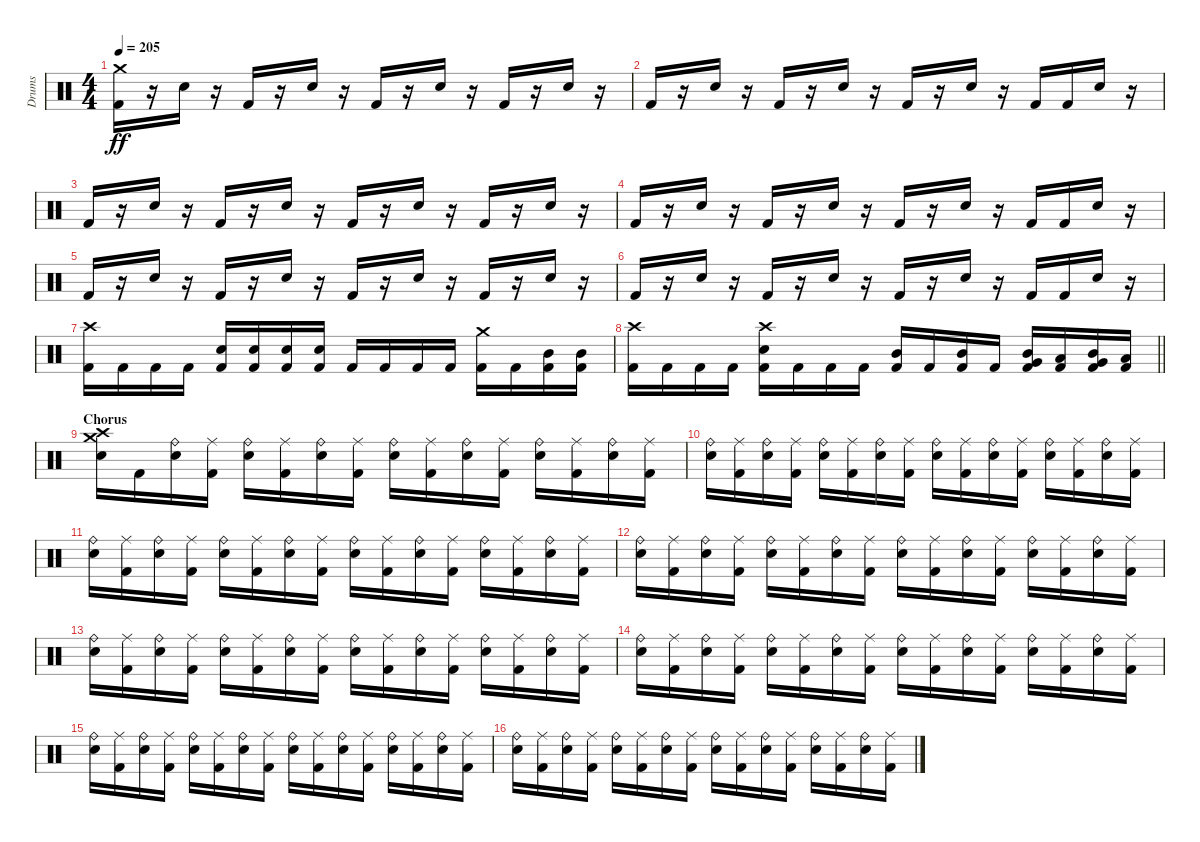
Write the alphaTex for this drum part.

\track ("Drums" "Drums") {instrument percussion}
\staff {score}
\articulation defaults
\ts (4 4)
\tempo 205
\clef neutral
\ks c
("Crash medium (hit)" "Kick (hit) 2").16{dy ff} r.16 "Snare (hit) 2".16 r.16 "Kick (hit) 2".16 r.16 "Snare (hit) 2".16 r.16 "Kick (hit) 2".16 r.16 "Snare (hit) 2".16 r.16 "Kick (hit) 2".16 r.16 "Snare (hit) 2".16 r.16 |
"Kick (hit) 2".16 r.16 "Snare (hit) 2".16 r.16 "Kick (hit) 2".16 r.16 "Snare (hit) 2".16 r.16 "Kick (hit) 2".16 r.16 "Snare (hit) 2".16 r.16 "Kick (hit) 2".16 "Kick (hit) 2".16 "Snare (hit) 2".16 r.16 |
"Kick (hit) 2".16 r.16 "Snare (hit) 2".16 r.16 "Kick (hit) 2".16 r.16 "Snare (hit) 2".16 r.16 "Kick (hit) 2".16 r.16 "Snare (hit) 2".16 r.16 "Kick (hit) 2".16 r.16 "Snare (hit) 2".16 r.16 |
"Kick (hit) 2".16 r.16 "Snare (hit) 2".16 r.16 "Kick (hit) 2".16 r.16 "Snare (hit) 2".16 r.16 "Kick (hit) 2".16 r.16 "Snare (hit) 2".16 r.16 "Kick (hit) 2".16 "Kick (hit) 2".16 "Snare (hit) 2".16 r.16 |
"Kick (hit) 2".16 r.16 "Snare (hit) 2".16 r.16 "Kick (hit) 2".16 r.16 "Snare (hit) 2".16 r.16 "Kick (hit) 2".16 r.16 "Snare (hit) 2".16 r.16 "Kick (hit) 2".16 r.16 "Snare (hit) 2".16 r.16 |
"Kick (hit) 2".16 r.16 "Snare (hit) 2".16 r.16 "Kick (hit) 2".16 r.16 "Snare (hit) 2".16 r.16 "Kick (hit) 2".16 r.16 "Snare (hit) 2".16 r.16 "Kick (hit) 2".16 "Kick (hit) 2".16 "Snare (hit) 2".16 r.16 |
("Crash high (hit)" "Kick (hit) 2").16 "Kick (hit) 2".16 "Kick (hit) 2".16 "Kick (hit) 2".16 ("Kick (hit) 2" "Snare (hit) 2").16 ("Kick (hit) 2" "Snare (hit) 2").16 ("Kick (hit) 2" "Snare (hit) 2").16 ("Kick (hit) 2" "Snare (hit) 2").16 "Kick (hit) 2".16 "Kick (hit) 2".16 "Kick (hit) 2".16 "Kick (hit) 2".16 ("Crash medium (hit)" "Kick (hit) 2").16 "Kick (hit) 2".16 ("Kick (hit) 2" "Mid Tom (hit)").16 ("Kick (hit) 2" "Mid Tom (hit)").16 |
\barLineRight lightlight
("Crash high (hit)" "Kick (hit) 2").16 "Kick (hit) 2".16 "Kick (hit) 2".16 "Kick (hit) 2".16 ("Crash high (hit)" "Kick (hit) 2" "Snare (hit) 2").16 "Kick (hit) 2".16 "Kick (hit) 2".16 "Kick (hit) 2".16 ("Kick (hit) 2" "Mid Tom (hit)").16 "Kick (hit) 2".16 ("Kick (hit) 2" "Mid Tom (hit)").16 "Kick (hit) 2".16 ("Kick (hit) 2" "Very Low Tom (hit)" "Mid Tom (hit)").16 ("Kick (hit) 2" "Low Tom (hit)").16 ("Kick (hit) 2" "Very Low Tom (hit)" "Mid Tom (hit)").16 ("Kick (hit) 2" "Low Floor Tom (hit)").16 |
\section ("" "Chorus")
("Crash high (hit)" "Crash medium (hit)" "Snare (hit) 2").16 "Kick (hit) 2".16 ("Snare (hit) 2" "Ride (bell)").16 ("Kick (hit) 2" "Ride (middle)").16 ("Snare (hit) 2" "Ride (bell)").16 ("Kick (hit) 2" "Ride (middle)").16 ("Snare (hit) 2" "Ride (bell)").16 ("Kick (hit) 2" "Ride (middle)").16 ("Snare (hit) 2" "Ride (bell)").16 ("Kick (hit) 2" "Ride (middle)").16 ("Snare (hit) 2" "Ride (bell)").16 ("Kick (hit) 2" "Ride (middle)").16 ("Snare (hit) 2" "Ride (bell)").16 ("Kick (hit) 2" "Ride (middle)").16 ("Snare (hit) 2" "Ride (bell)").16 ("Kick (hit) 2" "Ride (middle)").16 |
("Snare (hit) 2" "Ride (bell)").16 ("Kick (hit) 2" "Ride (middle)").16 ("Snare (hit) 2" "Ride (bell)").16 ("Kick (hit) 2" "Ride (middle)").16 ("Snare (hit) 2" "Ride (bell)").16 ("Kick (hit) 2" "Ride (middle)").16 ("Snare (hit) 2" "Ride (bell)").16 ("Kick (hit) 2" "Ride (middle)").16 ("Snare (hit) 2" "Ride (bell)").16 ("Kick (hit) 2" "Ride (middle)").16 ("Snare (hit) 2" "Ride (bell)").16 ("Kick (hit) 2" "Ride (middle)").16 ("Snare (hit) 2" "Ride (bell)").16 ("Kick (hit) 2" "Ride (middle)").16 ("Snare (hit) 2" "Ride (bell)").16 ("Kick (hit) 2" "Ride (middle)").16 |
("Snare (hit) 2" "Ride (bell)").16 ("Kick (hit) 2" "Ride (middle)").16 ("Snare (hit) 2" "Ride (bell)").16 ("Kick (hit) 2" "Ride (middle)").16 ("Snare (hit) 2" "Ride (bell)").16 ("Kick (hit) 2" "Ride (middle)").16 ("Snare (hit) 2" "Ride (bell)").16 ("Kick (hit) 2" "Ride (middle)").16 ("Snare (hit) 2" "Ride (bell)").16 ("Kick (hit) 2" "Ride (middle)").16 ("Snare (hit) 2" "Ride (bell)").16 ("Kick (hit) 2" "Ride (middle)").16 ("Snare (hit) 2" "Ride (bell)").16 ("Kick (hit) 2" "Ride (middle)").16 ("Snare (hit) 2" "Ride (bell)").16 ("Kick (hit) 2" "Ride (middle)").16 |
("Snare (hit) 2" "Ride (bell)").16 ("Kick (hit) 2" "Ride (middle)").16 ("Snare (hit) 2" "Ride (bell)").16 ("Kick (hit) 2" "Ride (middle)").16 ("Snare (hit) 2" "Ride (bell)").16 ("Kick (hit) 2" "Ride (middle)").16 ("Snare (hit) 2" "Ride (bell)").16 ("Kick (hit) 2" "Ride (middle)").16 ("Snare (hit) 2" "Ride (bell)").16 ("Kick (hit) 2" "Ride (middle)").16 ("Snare (hit) 2" "Ride (bell)").16 ("Kick (hit) 2" "Ride (middle)").16 ("Snare (hit) 2" "Ride (bell)").16 ("Kick (hit) 2" "Ride (middle)").16 ("Snare (hit) 2" "Ride (bell)").16 ("Kick (hit) 2" "Ride (middle)").16 |
("Snare (hit) 2" "Ride (bell)").16 ("Kick (hit) 2" "Ride (middle)").16 ("Snare (hit) 2" "Ride (bell)").16 ("Kick (hit) 2" "Ride (middle)").16 ("Snare (hit) 2" "Ride (bell)").16 ("Kick (hit) 2" "Ride (middle)").16 ("Snare (hit) 2" "Ride (bell)").16 ("Kick (hit) 2" "Ride (middle)").16 ("Snare (hit) 2" "Ride (bell)").16 ("Kick (hit) 2" "Ride (middle)").16 ("Snare (hit) 2" "Ride (bell)").16 ("Kick (hit) 2" "Ride (middle)").16 ("Snare (hit) 2" "Ride (bell)").16 ("Kick (hit) 2" "Ride (middle)").16 ("Snare (hit) 2" "Ride (bell)").16 ("Kick (hit) 2" "Ride (middle)").16 |
("Snare (hit) 2" "Ride (bell)").16 ("Kick (hit) 2" "Ride (middle)").16 ("Snare (hit) 2" "Ride (bell)").16 ("Kick (hit) 2" "Ride (middle)").16 ("Snare (hit) 2" "Ride (bell)").16 ("Kick (hit) 2" "Ride (middle)").16 ("Snare (hit) 2" "Ride (bell)").16 ("Kick (hit) 2" "Ride (middle)").16 ("Snare (hit) 2" "Ride (bell)").16 ("Kick (hit) 2" "Ride (middle)").16 ("Snare (hit) 2" "Ride (bell)").16 ("Kick (hit) 2" "Ride (middle)").16 ("Snare (hit) 2" "Ride (bell)").16 ("Kick (hit) 2" "Ride (middle)").16 ("Snare (hit) 2" "Ride (bell)").16 ("Kick (hit) 2" "Ride (middle)").16 |
("Snare (hit) 2" "Ride (bell)").16 ("Kick (hit) 2" "Ride (middle)").16 ("Snare (hit) 2" "Ride (bell)").16 ("Kick (hit) 2" "Ride (middle)").16 ("Snare (hit) 2" "Ride (bell)").16 ("Kick (hit) 2" "Ride (middle)").16 ("Snare (hit) 2" "Ride (bell)").16 ("Kick (hit) 2" "Ride (middle)").16 ("Snare (hit) 2" "Ride (bell)").16 ("Kick (hit) 2" "Ride (middle)").16 ("Snare (hit) 2" "Ride (bell)").16 ("Kick (hit) 2" "Ride (middle)").16 ("Snare (hit) 2" "Ride (bell)").16 ("Kick (hit) 2" "Ride (middle)").16 ("Snare (hit) 2" "Ride (bell)").16 ("Kick (hit) 2" "Ride (middle)").16 |
("Snare (hit) 2" "Ride (bell)").16 ("Kick (hit) 2" "Ride (middle)").16 ("Snare (hit) 2" "Ride (bell)").16 ("Kick (hit) 2" "Ride (middle)").16 ("Snare (hit) 2" "Ride (bell)").16 ("Kick (hit) 2" "Ride (middle)").16 ("Snare (hit) 2" "Ride (bell)").16 ("Kick (hit) 2" "Ride (middle)").16 ("Snare (hit) 2" "Ride (bell)").16 ("Kick (hit) 2" "Ride (middle)").16 ("Snare (hit) 2" "Ride (bell)").16 ("Kick (hit) 2" "Ride (middle)").16 ("Snare (hit) 2" "Ride (bell)").16 ("Kick (hit) 2" "Ride (middle)").16 ("Snare (hit) 2" "Ride (bell)").16 ("Kick (hit) 2" "Ride (middle)").16
